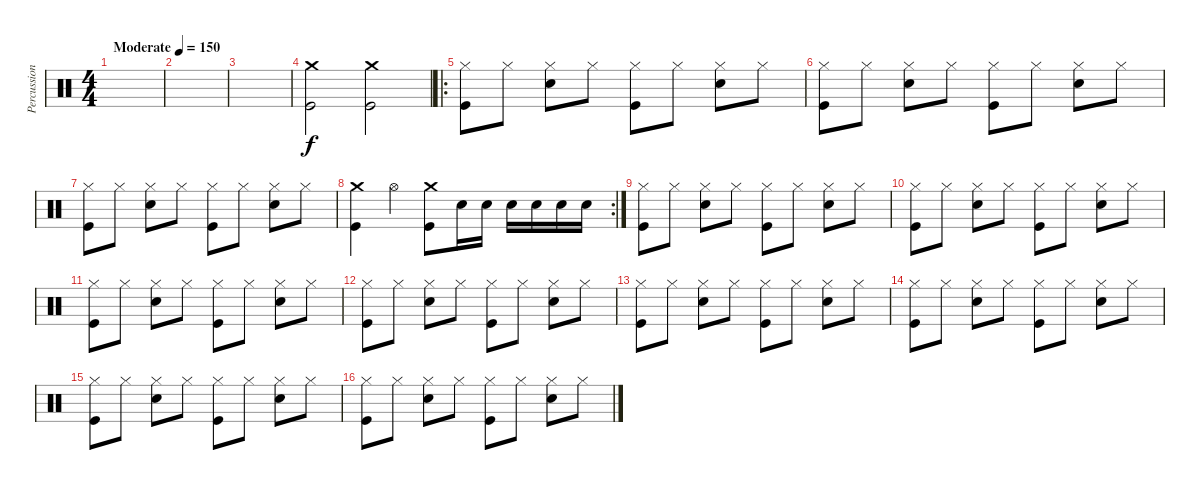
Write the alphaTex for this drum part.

\track ("Percussion" "Percussion") {instrument percussion}
\staff {score}
\articulation defaults
\ts (4 4)
\tempo (150 "Moderate")
\clef neutral
\ks c
|
|
|
("Crash medium (hit)" "Kick (hit)").2 ("Crash medium (hit)" "Kick (hit)").2 |
\ro
("Hi-Hat (closed)" "Kick (hit)").8 "Hi-Hat (closed)".8 ("Hi-Hat (closed)" "Snare (hit) 2").8 "Hi-Hat (closed)".8 ("Hi-Hat (closed)" "Kick (hit)").8 "Hi-Hat (closed)".8 ("Hi-Hat (closed)" "Snare (hit) 2").8 "Hi-Hat (closed)".8 |
("Hi-Hat (closed)" "Kick (hit)").8 "Hi-Hat (closed)".8 ("Hi-Hat (closed)" "Snare (hit) 2").8 "Hi-Hat (closed)".8 ("Hi-Hat (closed)" "Kick (hit)").8 "Hi-Hat (closed)".8 ("Hi-Hat (closed)" "Snare (hit) 2").8 "Hi-Hat (closed)".8 |
("Hi-Hat (closed)" "Kick (hit)").8 "Hi-Hat (closed)".8 ("Hi-Hat (closed)" "Snare (hit) 2").8 "Hi-Hat (closed)".8 ("Hi-Hat (closed)" "Kick (hit)").8 "Hi-Hat (closed)".8 ("Hi-Hat (closed)" "Snare (hit) 2").8 "Hi-Hat (closed)".8 |
\rc 2
("Crash medium (hit)" "Kick (hit)").4 "Hi-Hat (open)".4 ("Crash medium (hit)" "Kick (hit)").8 "Snare (hit) 2".16 "Snare (hit) 2".16 "Snare (hit) 2".16 "Snare (hit) 2".16 "Snare (hit) 2".16 "Snare (hit) 2".16 |
("Hi-Hat (closed)" "Kick (hit)").8 "Hi-Hat (closed)".8 ("Hi-Hat (closed)" "Snare (hit) 2").8 "Hi-Hat (closed)".8 ("Hi-Hat (closed)" "Kick (hit)").8 "Hi-Hat (closed)".8 ("Hi-Hat (closed)" "Snare (hit) 2").8 "Hi-Hat (closed)".8 |
("Hi-Hat (closed)" "Kick (hit)").8 "Hi-Hat (closed)".8 ("Hi-Hat (closed)" "Snare (hit) 2").8 "Hi-Hat (closed)".8 ("Hi-Hat (closed)" "Kick (hit)").8 "Hi-Hat (closed)".8 ("Hi-Hat (closed)" "Snare (hit) 2").8 "Hi-Hat (closed)".8 |
("Hi-Hat (closed)" "Kick (hit)").8 "Hi-Hat (closed)".8 ("Hi-Hat (closed)" "Snare (hit) 2").8 "Hi-Hat (closed)".8 ("Hi-Hat (closed)" "Kick (hit)").8 "Hi-Hat (closed)".8 ("Hi-Hat (closed)" "Snare (hit) 2").8 "Hi-Hat (closed)".8 |
("Hi-Hat (closed)" "Kick (hit)").8 "Hi-Hat (closed)".8 ("Hi-Hat (closed)" "Snare (hit) 2").8 "Hi-Hat (closed)".8 ("Hi-Hat (closed)" "Kick (hit)").8 "Hi-Hat (closed)".8 ("Hi-Hat (closed)" "Snare (hit) 2").8 "Hi-Hat (closed)".8 |
("Hi-Hat (closed)" "Kick (hit)").8 "Hi-Hat (closed)".8 ("Hi-Hat (closed)" "Snare (hit) 2").8 "Hi-Hat (closed)".8 ("Hi-Hat (closed)" "Kick (hit)").8 "Hi-Hat (closed)".8 ("Hi-Hat (closed)" "Snare (hit) 2").8 "Hi-Hat (closed)".8 |
("Hi-Hat (closed)" "Kick (hit)").8 "Hi-Hat (closed)".8 ("Hi-Hat (closed)" "Snare (hit) 2").8 "Hi-Hat (closed)".8 ("Hi-Hat (closed)" "Kick (hit)").8 "Hi-Hat (closed)".8 ("Hi-Hat (closed)" "Snare (hit) 2").8 "Hi-Hat (closed)".8 |
("Hi-Hat (closed)" "Kick (hit)").8 "Hi-Hat (closed)".8 ("Hi-Hat (closed)" "Snare (hit) 2").8 "Hi-Hat (closed)".8 ("Hi-Hat (closed)" "Kick (hit)").8 "Hi-Hat (closed)".8 ("Hi-Hat (closed)" "Snare (hit) 2").8 "Hi-Hat (closed)".8 |
("Hi-Hat (closed)" "Kick (hit)").8 "Hi-Hat (closed)".8 ("Hi-Hat (closed)" "Snare (hit) 2").8 "Hi-Hat (closed)".8 ("Hi-Hat (closed)" "Kick (hit)").8 "Hi-Hat (closed)".8 ("Hi-Hat (closed)" "Snare (hit) 2").8 "Hi-Hat (closed)".8
